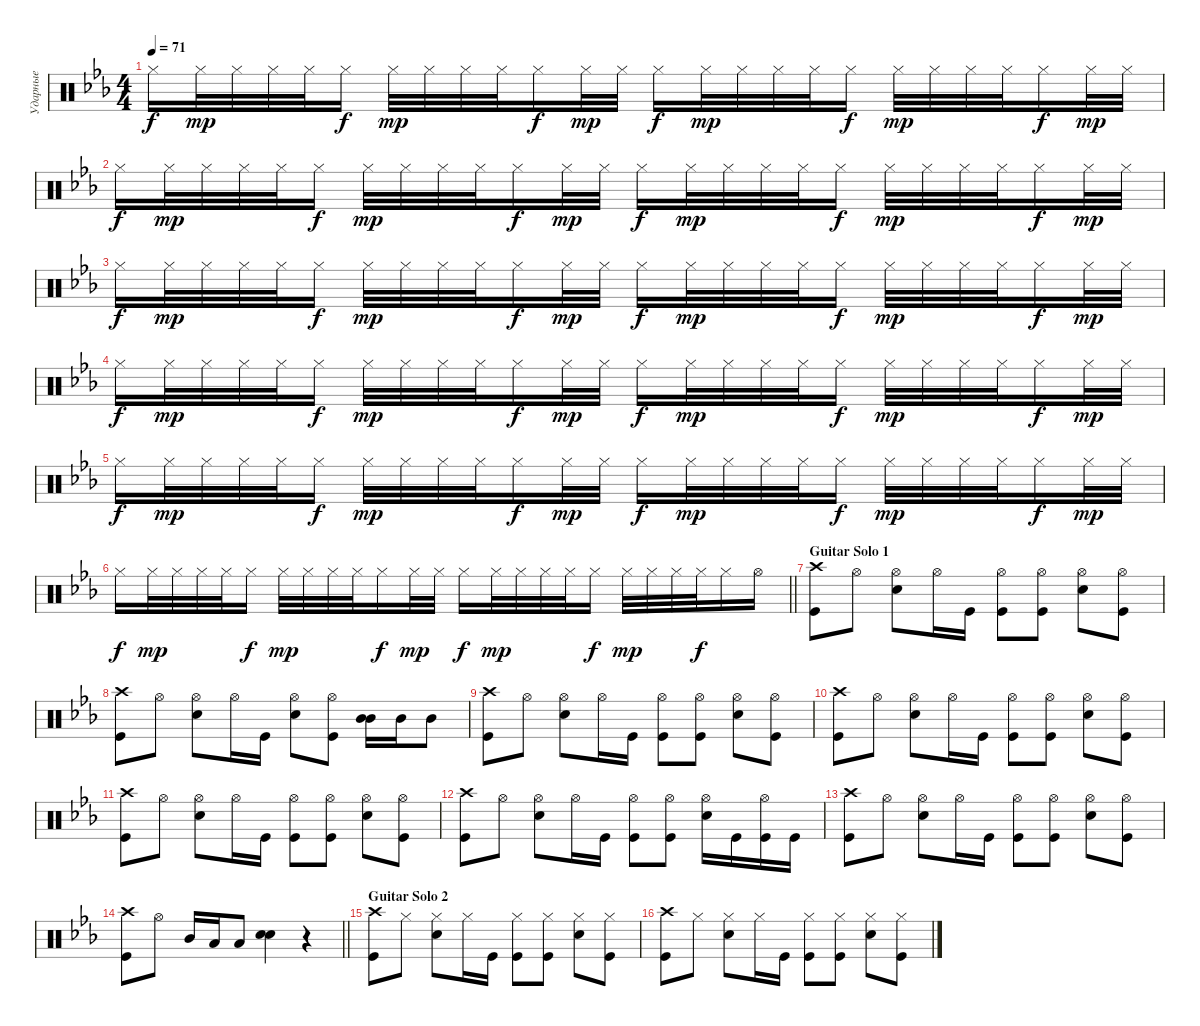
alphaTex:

\track ("Ударные" "Ударные") {instrument percussion}
\staff {score}
\articulation defaults
\ts (4 4)
\tempo 71
\clef neutral
\ks cminor "Hi-Hat (closed)".16{dy f} "Hi-Hat (closed)".32{dy mp} "Hi-Hat (closed)".32 "Hi-Hat (closed)".32 "Hi-Hat (closed)".32 "Hi-Hat (closed)".16{dy f} "Hi-Hat (closed)".32{dy mp} "Hi-Hat (closed)".32 "Hi-Hat (closed)".32 "Hi-Hat (closed)".32 "Hi-Hat (closed)".16{dy f} "Hi-Hat (closed)".32{dy mp} "Hi-Hat (closed)".32 "Hi-Hat (closed)".16{dy f} "Hi-Hat (closed)".32{dy mp} "Hi-Hat (closed)".32 "Hi-Hat (closed)".32 "Hi-Hat (closed)".32 "Hi-Hat (closed)".16{dy f} "Hi-Hat (closed)".32{dy mp} "Hi-Hat (closed)".32 "Hi-Hat (closed)".32 "Hi-Hat (closed)".32 "Hi-Hat (closed)".16{dy f} "Hi-Hat (closed)".32{dy mp} "Hi-Hat (closed)".32
|
"Hi-Hat (closed)".16{dy f} "Hi-Hat (closed)".32{dy mp} "Hi-Hat (closed)".32 "Hi-Hat (closed)".32 "Hi-Hat (closed)".32 "Hi-Hat (closed)".16{dy f} "Hi-Hat (closed)".32{dy mp} "Hi-Hat (closed)".32 "Hi-Hat (closed)".32 "Hi-Hat (closed)".32 "Hi-Hat (closed)".16{dy f} "Hi-Hat (closed)".32{dy mp} "Hi-Hat (closed)".32 "Hi-Hat (closed)".16{dy f} "Hi-Hat (closed)".32{dy mp} "Hi-Hat (closed)".32 "Hi-Hat (closed)".32 "Hi-Hat (closed)".32 "Hi-Hat (closed)".16{dy f} "Hi-Hat (closed)".32{dy mp} "Hi-Hat (closed)".32 "Hi-Hat (closed)".32 "Hi-Hat (closed)".32 "Hi-Hat (closed)".16{dy f} "Hi-Hat (closed)".32{dy mp} "Hi-Hat (closed)".32 |
"Hi-Hat (closed)".16{dy f} "Hi-Hat (closed)".32{dy mp} "Hi-Hat (closed)".32 "Hi-Hat (closed)".32 "Hi-Hat (closed)".32 "Hi-Hat (closed)".16{dy f} "Hi-Hat (closed)".32{dy mp} "Hi-Hat (closed)".32 "Hi-Hat (closed)".32 "Hi-Hat (closed)".32 "Hi-Hat (closed)".16{dy f} "Hi-Hat (closed)".32{dy mp} "Hi-Hat (closed)".32 "Hi-Hat (closed)".16{dy f} "Hi-Hat (closed)".32{dy mp} "Hi-Hat (closed)".32 "Hi-Hat (closed)".32 "Hi-Hat (closed)".32 "Hi-Hat (closed)".16{dy f} "Hi-Hat (closed)".32{dy mp} "Hi-Hat (closed)".32 "Hi-Hat (closed)".32 "Hi-Hat (closed)".32 "Hi-Hat (closed)".16{dy f} "Hi-Hat (closed)".32{dy mp} "Hi-Hat (closed)".32 |
"Hi-Hat (closed)".16{dy f} "Hi-Hat (closed)".32{dy mp} "Hi-Hat (closed)".32 "Hi-Hat (closed)".32 "Hi-Hat (closed)".32 "Hi-Hat (closed)".16{dy f} "Hi-Hat (closed)".32{dy mp} "Hi-Hat (closed)".32 "Hi-Hat (closed)".32 "Hi-Hat (closed)".32 "Hi-Hat (closed)".16{dy f} "Hi-Hat (closed)".32{dy mp} "Hi-Hat (closed)".32 "Hi-Hat (closed)".16{dy f} "Hi-Hat (closed)".32{dy mp} "Hi-Hat (closed)".32 "Hi-Hat (closed)".32 "Hi-Hat (closed)".32 "Hi-Hat (closed)".16{dy f} "Hi-Hat (closed)".32{dy mp} "Hi-Hat (closed)".32 "Hi-Hat (closed)".32 "Hi-Hat (closed)".32 "Hi-Hat (closed)".16{dy f} "Hi-Hat (closed)".32{dy mp} "Hi-Hat (closed)".32 |
"Hi-Hat (closed)".16{dy f} "Hi-Hat (closed)".32{dy mp} "Hi-Hat (closed)".32 "Hi-Hat (closed)".32 "Hi-Hat (closed)".32 "Hi-Hat (closed)".16{dy f} "Hi-Hat (closed)".32{dy mp} "Hi-Hat (closed)".32 "Hi-Hat (closed)".32 "Hi-Hat (closed)".32 "Hi-Hat (closed)".16{dy f} "Hi-Hat (closed)".32{dy mp} "Hi-Hat (closed)".32 "Hi-Hat (closed)".16{dy f} "Hi-Hat (closed)".32{dy mp} "Hi-Hat (closed)".32 "Hi-Hat (closed)".32 "Hi-Hat (closed)".32 "Hi-Hat (closed)".16{dy f} "Hi-Hat (closed)".32{dy mp} "Hi-Hat (closed)".32 "Hi-Hat (closed)".32 "Hi-Hat (closed)".32 "Hi-Hat (closed)".16{dy f} "Hi-Hat (closed)".32{dy mp} "Hi-Hat (closed)".32 |
\barLineRight lightlight "Hi-Hat (closed)".16{dy f} "Hi-Hat (closed)".32{dy mp} "Hi-Hat (closed)".32 "Hi-Hat (closed)".32 "Hi-Hat (closed)".32 "Hi-Hat (closed)".16{dy f} "Hi-Hat (closed)".32{dy mp} "Hi-Hat (closed)".32 "Hi-Hat (closed)".32 "Hi-Hat (closed)".32 "Hi-Hat (closed)".16{dy f} "Hi-Hat (closed)".32{dy mp} "Hi-Hat (closed)".32 "Hi-Hat (closed)".16{dy f} "Hi-Hat (closed)".32{dy mp} "Hi-Hat (closed)".32 "Hi-Hat (closed)".32{volume 16} "Hi-Hat (closed)".32 "Hi-Hat (closed)".16{dy f} "Hi-Hat (closed)".32{dy mp} "Hi-Hat (closed)".32 "Hi-Hat (closed)".32 "Hi-Hat (closed)".32{dy f} "Hi-Hat (closed)".16 "Hi-Hat (open)".16
|
\section ("" "Guitar Solo 1")
("Kick (hit)" "Crash high (hit)").8 "Hi-Hat (open)".8 ("Snare (hit) 2" "Hi-Hat (open)").8 "Hi-Hat (open)".16 "Kick (hit)".16 ("Hi-Hat (open)" "Kick (hit)").8 ("Hi-Hat (open)" "Kick (hit)").8 ("Hi-Hat (open)" "Snare (hit) 2").8 ("Hi-Hat (open)" "Kick (hit)").8 |
("Kick (hit)" "Crash high (hit)").8 "Hi-Hat (open)".8 ("Snare (hit) 2" "Hi-Hat (open)").8 "Hi-Hat (open)".16 "Kick (hit)".16 ("Hi-Hat (open)" "Snare (hit) 2").8 ("Hi-Hat (open)" "Kick (hit)").8 ("Mid Tom (hit)" "Mid Tom (hit)").16{bd 120} "Mid Tom (hit)".16 "Mid Tom (hit)".8 |
("Kick (hit)" "Crash high (hit)").8 "Hi-Hat (open)".8 ("Snare (hit) 2" "Hi-Hat (open)").8 "Hi-Hat (open)".16 "Kick (hit)".16 ("Hi-Hat (open)" "Kick (hit)").8 ("Hi-Hat (open)" "Kick (hit)").8 ("Hi-Hat (open)" "Snare (hit) 2").8 ("Hi-Hat (open)" "Kick (hit)").8 |
("Kick (hit)" "Crash high (hit)").8 "Hi-Hat (open)".8 ("Snare (hit) 2" "Hi-Hat (open)").8 "Hi-Hat (open)".16 "Kick (hit)".16 ("Hi-Hat (open)" "Kick (hit)").8 ("Hi-Hat (open)" "Kick (hit)").8 ("Hi-Hat (open)" "Snare (hit) 2").8 ("Hi-Hat (open)" "Kick (hit)").8 |
("Kick (hit)" "Crash high (hit)").8 "Hi-Hat (open)".8 ("Snare (hit) 2" "Hi-Hat (open)").8 "Hi-Hat (open)".16 "Kick (hit)".16 ("Hi-Hat (open)" "Kick (hit)").8 ("Hi-Hat (open)" "Kick (hit)").8 ("Hi-Hat (open)" "Snare (hit) 2").8 ("Hi-Hat (open)" "Kick (hit)").8 |
("Kick (hit)" "Crash high (hit)").8 "Hi-Hat (open)".8 ("Snare (hit) 2" "Hi-Hat (open)").8 "Hi-Hat (open)".16 "Kick (hit)".16 ("Hi-Hat (open)" "Kick (hit)").8 ("Hi-Hat (open)" "Kick (hit)").8 ("Hi-Hat (open)" "Snare (hit) 2").16 "Kick (hit)".16 ("Hi-Hat (open)" "Kick (hit)").16 "Kick (hit)".16 |
("Kick (hit)" "Crash high (hit)").8 "Hi-Hat (open)".8 ("Snare (hit) 2" "Hi-Hat (open)").8 "Hi-Hat (open)".16 "Kick (hit)".16 ("Hi-Hat (open)" "Kick (hit)").8 ("Hi-Hat (open)" "Kick (hit)").8 ("Hi-Hat (open)" "Snare (hit) 2").8 ("Hi-Hat (open)" "Kick (hit)").8 |
\barLineRight lightlight
("Kick (hit)" "Crash high (hit)").8 "Hi-Hat (open)".8 "Mid Tom (hit)".16 "Low Tom (hit)".16 "Low Tom (hit)".8 ("Snare (hit) 2" "Snare (hit) 2").4{bd 120} r.4 |
\section ("" "Guitar Solo 2")
("Kick (hit)" "Crash high (hit)").8 "Hi-Hat (closed)".8 ("Snare (hit) 2" "Hi-Hat (closed)").8 "Hi-Hat (closed)".16 "Kick (hit)".16 ("Hi-Hat (closed)" "Kick (hit)").8 ("Hi-Hat (closed)" "Kick (hit)").8 ("Hi-Hat (closed)" "Snare (hit) 2").8 ("Hi-Hat (closed)" "Kick (hit)").8 |
("Kick (hit)" "Crash high (hit)").8 "Hi-Hat (closed)".8 ("Snare (hit) 2" "Hi-Hat (closed)").8 "Hi-Hat (closed)".16 "Kick (hit)".16 ("Hi-Hat (closed)" "Kick (hit)").8 ("Hi-Hat (closed)" "Kick (hit)").8 ("Hi-Hat (closed)" "Snare (hit) 2").8 ("Hi-Hat (closed)" "Kick (hit)").8
